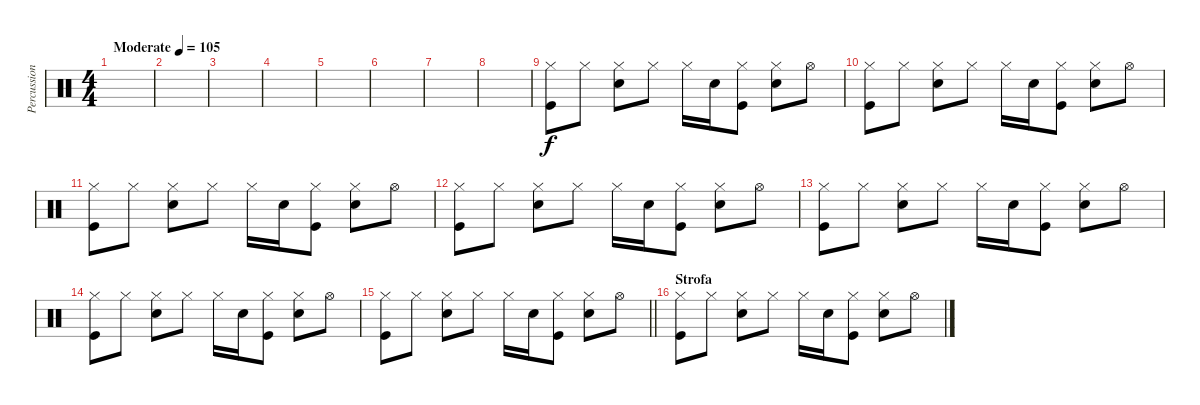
\track ("Percussion" "Percussion") {instrument percussion}
\staff {score}
\articulation defaults
\ts (4 4)
\tempo (105 "Moderate")
\clef neutral
\ks c
|
|
|
|
|
|
|
|
("Kick (hit)" "Hi-Hat (closed)").8 "Hi-Hat (closed)".8 ("Hi-Hat (closed)" "Snare (hit) 2").8 "Hi-Hat (closed)".8 "Hi-Hat (closed)".16 "Snare (hit) 2".16 ("Hi-Hat (closed)" "Kick (hit)").8 ("Hi-Hat (closed)" "Snare (hit) 2").8 "Hi-Hat (open)".8 |
("Kick (hit)" "Hi-Hat (closed)").8 "Hi-Hat (closed)".8 ("Hi-Hat (closed)" "Snare (hit) 2").8 "Hi-Hat (closed)".8 "Hi-Hat (closed)".16 "Snare (hit) 2".16 ("Hi-Hat (closed)" "Kick (hit)").8 ("Hi-Hat (closed)" "Snare (hit) 2").8 "Hi-Hat (open)".8 |
("Kick (hit)" "Hi-Hat (closed)").8 "Hi-Hat (closed)".8 ("Hi-Hat (closed)" "Snare (hit) 2").8 "Hi-Hat (closed)".8 "Hi-Hat (closed)".16 "Snare (hit) 2".16 ("Hi-Hat (closed)" "Kick (hit)").8 ("Hi-Hat (closed)" "Snare (hit) 2").8 "Hi-Hat (open)".8 |
("Kick (hit)" "Hi-Hat (closed)").8 "Hi-Hat (closed)".8 ("Hi-Hat (closed)" "Snare (hit) 2").8 "Hi-Hat (closed)".8 "Hi-Hat (closed)".16 "Snare (hit) 2".16 ("Hi-Hat (closed)" "Kick (hit)").8 ("Hi-Hat (closed)" "Snare (hit) 2").8 "Hi-Hat (open)".8 |
("Kick (hit)" "Hi-Hat (closed)").8 "Hi-Hat (closed)".8 ("Hi-Hat (closed)" "Snare (hit) 2").8 "Hi-Hat (closed)".8 "Hi-Hat (closed)".16 "Snare (hit) 2".16 ("Hi-Hat (closed)" "Kick (hit)").8 ("Hi-Hat (closed)" "Snare (hit) 2").8 "Hi-Hat (open)".8 |
("Kick (hit)" "Hi-Hat (closed)").8 "Hi-Hat (closed)".8 ("Hi-Hat (closed)" "Snare (hit) 2").8 "Hi-Hat (closed)".8 "Hi-Hat (closed)".16 "Snare (hit) 2".16 ("Hi-Hat (closed)" "Kick (hit)").8 ("Hi-Hat (closed)" "Snare (hit) 2").8 "Hi-Hat (open)".8 |
\barLineRight lightlight
("Kick (hit)" "Hi-Hat (closed)").8 "Hi-Hat (closed)".8 ("Hi-Hat (closed)" "Snare (hit) 2").8 "Hi-Hat (closed)".8 "Hi-Hat (closed)".16 "Snare (hit) 2".16 ("Hi-Hat (closed)" "Kick (hit)").8 ("Hi-Hat (closed)" "Snare (hit) 2").8 "Hi-Hat (open)".8 |
\section ("" "Strofa")
("Kick (hit)" "Hi-Hat (closed)").8 "Hi-Hat (closed)".8 ("Hi-Hat (closed)" "Snare (hit) 2").8 "Hi-Hat (closed)".8 "Hi-Hat (closed)".16 "Snare (hit) 2".16 ("Hi-Hat (closed)" "Kick (hit)").8 ("Hi-Hat (closed)" "Snare (hit) 2").8 "Hi-Hat (open)".8
